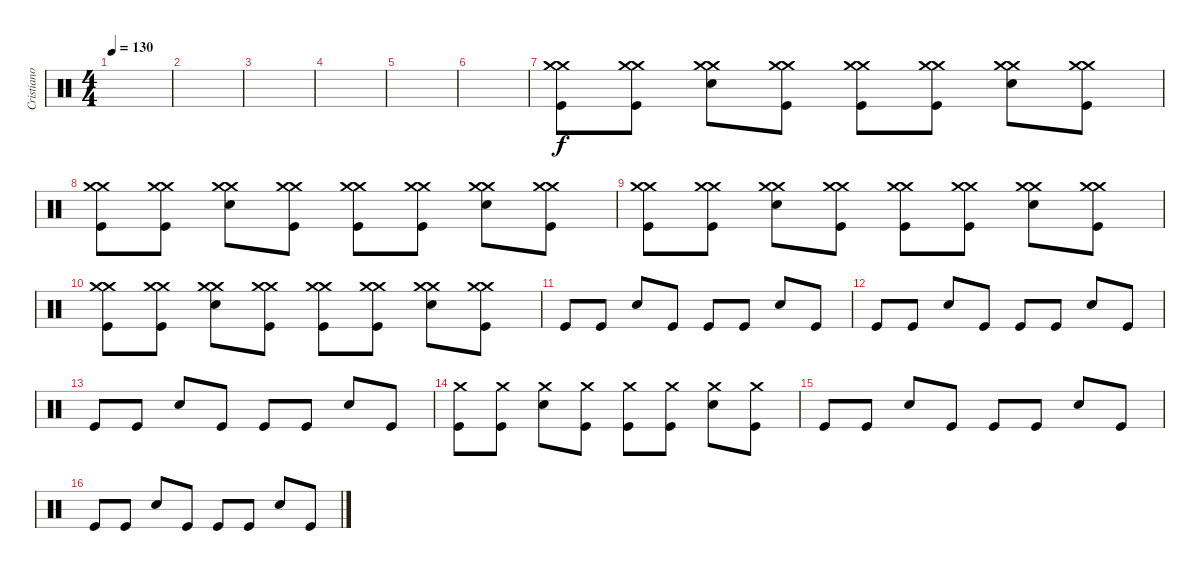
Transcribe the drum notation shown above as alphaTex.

\track ("Cristiano Mozzati" "Cristiano ") {instrument percussion}
\staff {score}
\articulation defaults
\ts (4 4)
\tempo 130
\clef neutral
\ks c
|
|
|
|
|
|
("Kick (hit)" "Crash medium (hit)" "Crash medium (hit)").8 ("Kick (hit)" "Crash medium (hit)" "Crash medium (hit)").8 ("Snare (hit) 2" "Crash medium (hit)" "Crash medium (hit)").8 ("Kick (hit)" "Crash medium (hit)" "Crash medium (hit)").8 ("Kick (hit)" "Crash medium (hit)" "Crash medium (hit)").8 ("Kick (hit)" "Crash medium (hit)" "Crash medium (hit)").8 ("Snare (hit) 2" "Crash medium (hit)" "Crash medium (hit)").8 ("Kick (hit)" "Crash medium (hit)" "Crash medium (hit)").8 |
("Kick (hit)" "Crash medium (hit)" "Crash medium (hit)").8 ("Kick (hit)" "Crash medium (hit)" "Crash medium (hit)").8 ("Snare (hit) 2" "Crash medium (hit)" "Crash medium (hit)").8 ("Kick (hit)" "Crash medium (hit)" "Crash medium (hit)").8 ("Kick (hit)" "Crash medium (hit)" "Crash medium (hit)").8 ("Kick (hit)" "Crash medium (hit)" "Crash medium (hit)").8 ("Snare (hit) 2" "Crash medium (hit)" "Crash medium (hit)").8 ("Kick (hit)" "Crash medium (hit)" "Crash medium (hit)").8 |
("Kick (hit)" "Crash medium (hit)" "Crash medium (hit)").8 ("Kick (hit)" "Crash medium (hit)" "Crash medium (hit)").8 ("Snare (hit) 2" "Crash medium (hit)" "Crash medium (hit)").8 ("Kick (hit)" "Crash medium (hit)" "Crash medium (hit)").8 ("Kick (hit)" "Crash medium (hit)" "Crash medium (hit)").8 ("Kick (hit)" "Crash medium (hit)" "Crash medium (hit)").8 ("Snare (hit) 2" "Crash medium (hit)" "Crash medium (hit)").8 ("Kick (hit)" "Crash medium (hit)" "Crash medium (hit)").8 |
("Kick (hit)" "Crash medium (hit)" "Crash medium (hit)").8 ("Kick (hit)" "Crash medium (hit)" "Crash medium (hit)").8 ("Snare (hit) 2" "Crash medium (hit)" "Crash medium (hit)").8 ("Kick (hit)" "Crash medium (hit)" "Crash medium (hit)").8 ("Kick (hit)" "Crash medium (hit)" "Crash medium (hit)").8 ("Kick (hit)" "Crash medium (hit)" "Crash medium (hit)").8 ("Snare (hit) 2" "Crash medium (hit)" "Crash medium (hit)").8 ("Kick (hit)" "Crash medium (hit)" "Crash medium (hit)").8 |
"Kick (hit)".8 "Kick (hit)".8 "Snare (hit) 2".8 "Kick (hit)".8 "Kick (hit)".8 "Kick (hit)".8 "Snare (hit) 2".8 "Kick (hit)".8 |
"Kick (hit)".8 "Kick (hit)".8 "Snare (hit) 2".8 "Kick (hit)".8 "Kick (hit)".8 "Kick (hit)".8 "Snare (hit) 2".8 "Kick (hit)".8 |
"Kick (hit)".8 "Kick (hit)".8 "Snare (hit) 2".8 "Kick (hit)".8 "Kick (hit)".8 "Kick (hit)".8 "Snare (hit) 2".8 "Kick (hit)".8 |
("Kick (hit)" "Crash medium (hit)").8 ("Kick (hit)" "Crash medium (hit)").8 ("Snare (hit) 2" "Crash medium (hit)").8 ("Kick (hit)" "Crash medium (hit)").8 ("Kick (hit)" "Crash medium (hit)").8 ("Kick (hit)" "Crash medium (hit)").8 ("Snare (hit) 2" "Crash medium (hit)").8 ("Kick (hit)" "Crash medium (hit)").8 |
"Kick (hit)".8 "Kick (hit)".8 "Snare (hit) 2".8 "Kick (hit)".8 "Kick (hit)".8 "Kick (hit)".8 "Snare (hit) 2".8 "Kick (hit)".8 |
"Kick (hit)".8 "Kick (hit)".8 "Snare (hit) 2".8 "Kick (hit)".8 "Kick (hit)".8 "Kick (hit)".8 "Snare (hit) 2".8 "Kick (hit)".8
